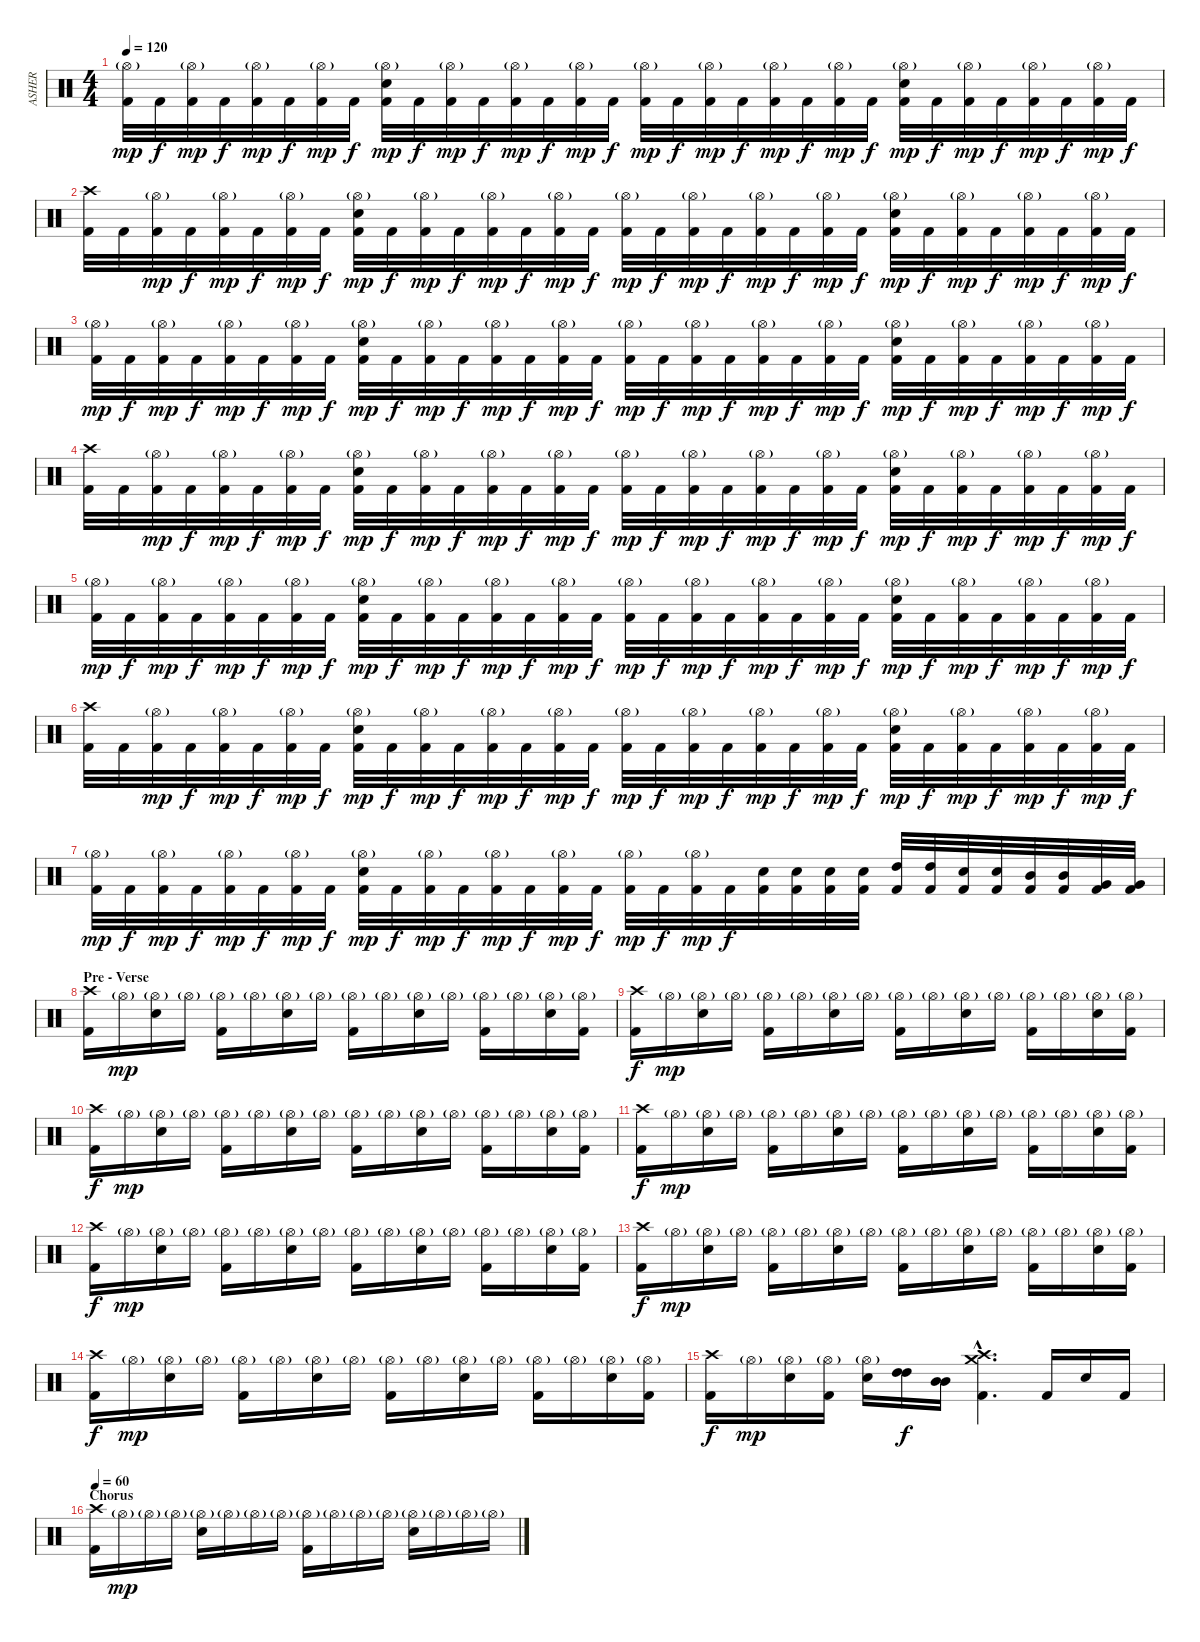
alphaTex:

\track ("ASHER" "ASHER") {instrument percussion}
\staff {score}
\articulation defaults
\ts (4 4)
\tempo 120
\clef neutral
\ks c
("Hi-Hat (open)"{g} "Kick (hit) 2").32{dy mp} "Kick (hit) 2".32{dy f} ("Hi-Hat (open)"{g} "Kick (hit) 2").32{dy mp} "Kick (hit) 2".32{dy f} ("Hi-Hat (open)"{g} "Kick (hit) 2").32{dy mp} "Kick (hit) 2".32{dy f} ("Hi-Hat (open)"{g} "Kick (hit) 2").32{dy mp} "Kick (hit) 2".32{dy f} ("Hi-Hat (open)"{g} "Electric Snare (hit)" "Kick (hit) 2").32{dy mp} "Kick (hit) 2".32{dy f} ("Hi-Hat (open)"{g} "Kick (hit) 2").32{dy mp} "Kick (hit) 2".32{dy f} ("Hi-Hat (open)"{g} "Kick (hit) 2").32{dy mp} "Kick (hit) 2".32{dy f} ("Hi-Hat (open)"{g} "Kick (hit) 2").32{dy mp} "Kick (hit) 2".32{dy f} ("Hi-Hat (open)"{g} "Kick (hit) 2").32{dy mp} "Kick (hit) 2".32{dy f} ("Hi-Hat (open)"{g} "Kick (hit) 2").32{dy mp} "Kick (hit) 2".32{dy f} ("Hi-Hat (open)"{g} "Kick (hit) 2").32{dy mp} "Kick (hit) 2".32{dy f} ("Hi-Hat (open)"{g} "Kick (hit) 2").32{dy mp} "Kick (hit) 2".32{dy f} ("Hi-Hat (open)"{g} "Electric Snare (hit)" "Kick (hit) 2").32{dy mp} "Kick (hit) 2".32{dy f} ("Hi-Hat (open)"{g} "Kick (hit) 2").32{dy mp} "Kick (hit) 2".32{dy f} ("Hi-Hat (open)"{g} "Kick (hit) 2").32{dy mp} "Kick (hit) 2".32{dy f} ("Hi-Hat (open)"{g} "Kick (hit) 2").32{dy mp} "Kick (hit) 2".32{dy f} |
("Crash high (hit)" "Kick (hit) 2").32 "Kick (hit) 2".32 ("Hi-Hat (open)"{g} "Kick (hit) 2").32{dy mp} "Kick (hit) 2".32{dy f} ("Hi-Hat (open)"{g} "Kick (hit) 2").32{dy mp} "Kick (hit) 2".32{dy f} ("Hi-Hat (open)"{g} "Kick (hit) 2").32{dy mp} "Kick (hit) 2".32{dy f} ("Hi-Hat (open)"{g} "Electric Snare (hit)" "Kick (hit) 2").32{dy mp} "Kick (hit) 2".32{dy f} ("Hi-Hat (open)"{g} "Kick (hit) 2").32{dy mp} "Kick (hit) 2".32{dy f} ("Hi-Hat (open)"{g} "Kick (hit) 2").32{dy mp} "Kick (hit) 2".32{dy f} ("Hi-Hat (open)"{g} "Kick (hit) 2").32{dy mp} "Kick (hit) 2".32{dy f} ("Hi-Hat (open)"{g} "Kick (hit) 2").32{dy mp} "Kick (hit) 2".32{dy f} ("Hi-Hat (open)"{g} "Kick (hit) 2").32{dy mp} "Kick (hit) 2".32{dy f} ("Hi-Hat (open)"{g} "Kick (hit) 2").32{dy mp} "Kick (hit) 2".32{dy f} ("Hi-Hat (open)"{g} "Kick (hit) 2").32{dy mp} "Kick (hit) 2".32{dy f} ("Hi-Hat (open)"{g} "Electric Snare (hit)" "Kick (hit) 2").32{dy mp} "Kick (hit) 2".32{dy f} ("Hi-Hat (open)"{g} "Kick (hit) 2").32{dy mp} "Kick (hit) 2".32{dy f} ("Hi-Hat (open)"{g} "Kick (hit) 2").32{dy mp} "Kick (hit) 2".32{dy f} ("Hi-Hat (open)"{g} "Kick (hit) 2").32{dy mp} "Kick (hit) 2".32{dy f} |
("Hi-Hat (open)"{g} "Kick (hit) 2").32{dy mp} "Kick (hit) 2".32{dy f} ("Hi-Hat (open)"{g} "Kick (hit) 2").32{dy mp} "Kick (hit) 2".32{dy f} ("Hi-Hat (open)"{g} "Kick (hit) 2").32{dy mp} "Kick (hit) 2".32{dy f} ("Hi-Hat (open)"{g} "Kick (hit) 2").32{dy mp} "Kick (hit) 2".32{dy f} ("Hi-Hat (open)"{g} "Electric Snare (hit)" "Kick (hit) 2").32{dy mp} "Kick (hit) 2".32{dy f} ("Hi-Hat (open)"{g} "Kick (hit) 2").32{dy mp} "Kick (hit) 2".32{dy f} ("Hi-Hat (open)"{g} "Kick (hit) 2").32{dy mp} "Kick (hit) 2".32{dy f} ("Hi-Hat (open)"{g} "Kick (hit) 2").32{dy mp} "Kick (hit) 2".32{dy f} ("Hi-Hat (open)"{g} "Kick (hit) 2").32{dy mp} "Kick (hit) 2".32{dy f} ("Hi-Hat (open)"{g} "Kick (hit) 2").32{dy mp} "Kick (hit) 2".32{dy f} ("Hi-Hat (open)"{g} "Kick (hit) 2").32{dy mp} "Kick (hit) 2".32{dy f} ("Hi-Hat (open)"{g} "Kick (hit) 2").32{dy mp} "Kick (hit) 2".32{dy f} ("Hi-Hat (open)"{g} "Electric Snare (hit)" "Kick (hit) 2").32{dy mp} "Kick (hit) 2".32{dy f} ("Hi-Hat (open)"{g} "Kick (hit) 2").32{dy mp} "Kick (hit) 2".32{dy f} ("Hi-Hat (open)"{g} "Kick (hit) 2").32{dy mp} "Kick (hit) 2".32{dy f} ("Hi-Hat (open)"{g} "Kick (hit) 2").32{dy mp} "Kick (hit) 2".32{dy f} |
("Crash high (hit)" "Kick (hit) 2").32 "Kick (hit) 2".32 ("Hi-Hat (open)"{g} "Kick (hit) 2").32{dy mp} "Kick (hit) 2".32{dy f} ("Hi-Hat (open)"{g} "Kick (hit) 2").32{dy mp} "Kick (hit) 2".32{dy f} ("Hi-Hat (open)"{g} "Kick (hit) 2").32{dy mp} "Kick (hit) 2".32{dy f} ("Hi-Hat (open)"{g} "Electric Snare (hit)" "Kick (hit) 2").32{dy mp} "Kick (hit) 2".32{dy f} ("Hi-Hat (open)"{g} "Kick (hit) 2").32{dy mp} "Kick (hit) 2".32{dy f} ("Hi-Hat (open)"{g} "Kick (hit) 2").32{dy mp} "Kick (hit) 2".32{dy f} ("Hi-Hat (open)"{g} "Kick (hit) 2").32{dy mp} "Kick (hit) 2".32{dy f} ("Hi-Hat (open)"{g} "Kick (hit) 2").32{dy mp} "Kick (hit) 2".32{dy f} ("Hi-Hat (open)"{g} "Kick (hit) 2").32{dy mp} "Kick (hit) 2".32{dy f} ("Hi-Hat (open)"{g} "Kick (hit) 2").32{dy mp} "Kick (hit) 2".32{dy f} ("Hi-Hat (open)"{g} "Kick (hit) 2").32{dy mp} "Kick (hit) 2".32{dy f} ("Hi-Hat (open)"{g} "Electric Snare (hit)" "Kick (hit) 2").32{dy mp} "Kick (hit) 2".32{dy f} ("Hi-Hat (open)"{g} "Kick (hit) 2").32{dy mp} "Kick (hit) 2".32{dy f} ("Hi-Hat (open)"{g} "Kick (hit) 2").32{dy mp} "Kick (hit) 2".32{dy f} ("Hi-Hat (open)"{g} "Kick (hit) 2").32{dy mp} "Kick (hit) 2".32{dy f} |
("Hi-Hat (open)"{g} "Kick (hit) 2").32{dy mp} "Kick (hit) 2".32{dy f} ("Hi-Hat (open)"{g} "Kick (hit) 2").32{dy mp} "Kick (hit) 2".32{dy f} ("Hi-Hat (open)"{g} "Kick (hit) 2").32{dy mp} "Kick (hit) 2".32{dy f} ("Hi-Hat (open)"{g} "Kick (hit) 2").32{dy mp} "Kick (hit) 2".32{dy f} ("Hi-Hat (open)"{g} "Electric Snare (hit)" "Kick (hit) 2").32{dy mp} "Kick (hit) 2".32{dy f} ("Hi-Hat (open)"{g} "Kick (hit) 2").32{dy mp} "Kick (hit) 2".32{dy f} ("Hi-Hat (open)"{g} "Kick (hit) 2").32{dy mp} "Kick (hit) 2".32{dy f} ("Hi-Hat (open)"{g} "Kick (hit) 2").32{dy mp} "Kick (hit) 2".32{dy f} ("Hi-Hat (open)"{g} "Kick (hit) 2").32{dy mp} "Kick (hit) 2".32{dy f} ("Hi-Hat (open)"{g} "Kick (hit) 2").32{dy mp} "Kick (hit) 2".32{dy f} ("Hi-Hat (open)"{g} "Kick (hit) 2").32{dy mp} "Kick (hit) 2".32{dy f} ("Hi-Hat (open)"{g} "Kick (hit) 2").32{dy mp} "Kick (hit) 2".32{dy f} ("Hi-Hat (open)"{g} "Electric Snare (hit)" "Kick (hit) 2").32{dy mp} "Kick (hit) 2".32{dy f} ("Hi-Hat (open)"{g} "Kick (hit) 2").32{dy mp} "Kick (hit) 2".32{dy f} ("Hi-Hat (open)"{g} "Kick (hit) 2").32{dy mp} "Kick (hit) 2".32{dy f} ("Hi-Hat (open)"{g} "Kick (hit) 2").32{dy mp} "Kick (hit) 2".32{dy f} |
("Crash high (hit)" "Kick (hit) 2").32 "Kick (hit) 2".32 ("Hi-Hat (open)"{g} "Kick (hit) 2").32{dy mp} "Kick (hit) 2".32{dy f} ("Hi-Hat (open)"{g} "Kick (hit) 2").32{dy mp} "Kick (hit) 2".32{dy f} ("Hi-Hat (open)"{g} "Kick (hit) 2").32{dy mp} "Kick (hit) 2".32{dy f} ("Hi-Hat (open)"{g} "Electric Snare (hit)" "Kick (hit) 2").32{dy mp} "Kick (hit) 2".32{dy f} ("Hi-Hat (open)"{g} "Kick (hit) 2").32{dy mp} "Kick (hit) 2".32{dy f} ("Hi-Hat (open)"{g} "Kick (hit) 2").32{dy mp} "Kick (hit) 2".32{dy f} ("Hi-Hat (open)"{g} "Kick (hit) 2").32{dy mp} "Kick (hit) 2".32{dy f} ("Hi-Hat (open)"{g} "Kick (hit) 2").32{dy mp} "Kick (hit) 2".32{dy f} ("Hi-Hat (open)"{g} "Kick (hit) 2").32{dy mp} "Kick (hit) 2".32{dy f} ("Hi-Hat (open)"{g} "Kick (hit) 2").32{dy mp} "Kick (hit) 2".32{dy f} ("Hi-Hat (open)"{g} "Kick (hit) 2").32{dy mp} "Kick (hit) 2".32{dy f} ("Hi-Hat (open)"{g} "Electric Snare (hit)" "Kick (hit) 2").32{dy mp} "Kick (hit) 2".32{dy f} ("Hi-Hat (open)"{g} "Kick (hit) 2").32{dy mp} "Kick (hit) 2".32{dy f} ("Hi-Hat (open)"{g} "Kick (hit) 2").32{dy mp} "Kick (hit) 2".32{dy f} ("Hi-Hat (open)"{g} "Kick (hit) 2").32{dy mp} "Kick (hit) 2".32{dy f} |
("Hi-Hat (open)"{g} "Kick (hit) 2").32{dy mp} "Kick (hit) 2".32{dy f} ("Hi-Hat (open)"{g} "Kick (hit) 2").32{dy mp} "Kick (hit) 2".32{dy f} ("Hi-Hat (open)"{g} "Kick (hit) 2").32{dy mp} "Kick (hit) 2".32{dy f} ("Hi-Hat (open)"{g} "Kick (hit) 2").32{dy mp} "Kick (hit) 2".32{dy f} ("Hi-Hat (open)"{g} "Electric Snare (hit)" "Kick (hit) 2").32{dy mp} "Kick (hit) 2".32{dy f} ("Hi-Hat (open)"{g} "Kick (hit) 2").32{dy mp} "Kick (hit) 2".32{dy f} ("Hi-Hat (open)"{g} "Kick (hit) 2").32{dy mp} "Kick (hit) 2".32{dy f} ("Hi-Hat (open)"{g} "Kick (hit) 2").32{dy mp} "Kick (hit) 2".32{dy f} ("Hi-Hat (open)"{g} "Kick (hit) 2").32{dy mp} "Kick (hit) 2".32{dy f} ("Hi-Hat (open)"{g} "Kick (hit) 2").32{dy mp} "Kick (hit) 2".32{dy f} ("Electric Snare (hit)" "Kick (hit) 2").32 ("Electric Snare (hit)" "Kick (hit) 2").32 ("Electric Snare (hit)" "Kick (hit) 2").32 ("Electric Snare (hit)" "Kick (hit) 2").32 ("High Tom (hit)" "Kick (hit) 2").32 ("High Tom (hit)" "Kick (hit) 2").32 ("Electric Snare (hit)" "Kick (hit) 2").32 ("Electric Snare (hit)" "Kick (hit) 2").32 ("Mid Tom (hit)" "Kick (hit) 2").32 ("Mid Tom (hit)" "Kick (hit) 2").32 ("Very Low Tom (hit)" "Kick (hit) 2").32 ("Very Low Tom (hit)" "Kick (hit) 2").32 |
\section ("" "Pre - Verse")
("Crash high (hit)" "Kick (hit) 2").16 "Hi-Hat (open)"{g}.16{dy mp} ("Hi-Hat (open)"{g} "Electric Snare (hit)").16 "Hi-Hat (open)"{g}.16 ("Hi-Hat (open)"{g} "Kick (hit) 2").16 "Hi-Hat (open)"{g}.16 ("Hi-Hat (open)"{g} "Electric Snare (hit)").16 "Hi-Hat (open)"{g}.16 ("Hi-Hat (open)"{g} "Kick (hit) 2").16 "Hi-Hat (open)"{g}.16 ("Hi-Hat (open)"{g} "Electric Snare (hit)").16 "Hi-Hat (open)"{g}.16 ("Hi-Hat (open)"{g} "Kick (hit) 2").16 "Hi-Hat (open)"{g}.16 ("Hi-Hat (open)"{g} "Electric Snare (hit)").16 ("Hi-Hat (open)"{g} "Kick (hit) 2").16 |
("Crash high (hit)" "Kick (hit) 2").16{dy f} "Hi-Hat (open)"{g}.16{dy mp} ("Hi-Hat (open)"{g} "Electric Snare (hit)").16 "Hi-Hat (open)"{g}.16 ("Hi-Hat (open)"{g} "Kick (hit) 2").16 "Hi-Hat (open)"{g}.16 ("Hi-Hat (open)"{g} "Electric Snare (hit)").16 "Hi-Hat (open)"{g}.16 ("Hi-Hat (open)"{g} "Kick (hit) 2").16 "Hi-Hat (open)"{g}.16 ("Hi-Hat (open)"{g} "Electric Snare (hit)").16 "Hi-Hat (open)"{g}.16 ("Hi-Hat (open)"{g} "Kick (hit) 2").16 "Hi-Hat (open)"{g}.16 ("Hi-Hat (open)"{g} "Electric Snare (hit)").16 ("Hi-Hat (open)"{g} "Kick (hit) 2").16 |
("Crash high (hit)" "Kick (hit) 2").16{dy f} "Hi-Hat (open)"{g}.16{dy mp} ("Hi-Hat (open)"{g} "Electric Snare (hit)").16 "Hi-Hat (open)"{g}.16 ("Hi-Hat (open)"{g} "Kick (hit) 2").16 "Hi-Hat (open)"{g}.16 ("Hi-Hat (open)"{g} "Electric Snare (hit)").16 "Hi-Hat (open)"{g}.16 ("Hi-Hat (open)"{g} "Kick (hit) 2").16 "Hi-Hat (open)"{g}.16 ("Hi-Hat (open)"{g} "Electric Snare (hit)").16 "Hi-Hat (open)"{g}.16 ("Hi-Hat (open)"{g} "Kick (hit) 2").16 "Hi-Hat (open)"{g}.16 ("Hi-Hat (open)"{g} "Electric Snare (hit)").16 ("Hi-Hat (open)"{g} "Kick (hit) 2").16 |
("Crash high (hit)" "Kick (hit) 2").16{dy f} "Hi-Hat (open)"{g}.16{dy mp} ("Hi-Hat (open)"{g} "Electric Snare (hit)").16 "Hi-Hat (open)"{g}.16 ("Hi-Hat (open)"{g} "Kick (hit) 2").16 "Hi-Hat (open)"{g}.16 ("Hi-Hat (open)"{g} "Electric Snare (hit)").16 "Hi-Hat (open)"{g}.16 ("Hi-Hat (open)"{g} "Kick (hit) 2").16 "Hi-Hat (open)"{g}.16 ("Hi-Hat (open)"{g} "Electric Snare (hit)").16 "Hi-Hat (open)"{g}.16 ("Hi-Hat (open)"{g} "Kick (hit) 2").16 "Hi-Hat (open)"{g}.16 ("Hi-Hat (open)"{g} "Electric Snare (hit)").16 ("Hi-Hat (open)"{g} "Kick (hit) 2").16 |
("Crash high (hit)" "Kick (hit) 2").16{dy f} "Hi-Hat (open)"{g}.16{dy mp} ("Hi-Hat (open)"{g} "Electric Snare (hit)").16 "Hi-Hat (open)"{g}.16 ("Hi-Hat (open)"{g} "Kick (hit) 2").16 "Hi-Hat (open)"{g}.16 ("Hi-Hat (open)"{g} "Electric Snare (hit)").16 "Hi-Hat (open)"{g}.16 ("Hi-Hat (open)"{g} "Kick (hit) 2").16 "Hi-Hat (open)"{g}.16 ("Hi-Hat (open)"{g} "Electric Snare (hit)").16 "Hi-Hat (open)"{g}.16 ("Hi-Hat (open)"{g} "Kick (hit) 2").16 "Hi-Hat (open)"{g}.16 ("Hi-Hat (open)"{g} "Electric Snare (hit)").16 ("Hi-Hat (open)"{g} "Kick (hit) 2").16 |
("Crash high (hit)" "Kick (hit) 2").16{dy f} "Hi-Hat (open)"{g}.16{dy mp} ("Hi-Hat (open)"{g} "Electric Snare (hit)").16 "Hi-Hat (open)"{g}.16 ("Hi-Hat (open)"{g} "Kick (hit) 2").16 "Hi-Hat (open)"{g}.16 ("Hi-Hat (open)"{g} "Electric Snare (hit)").16 "Hi-Hat (open)"{g}.16 ("Hi-Hat (open)"{g} "Kick (hit) 2").16 "Hi-Hat (open)"{g}.16 ("Hi-Hat (open)"{g} "Electric Snare (hit)").16 "Hi-Hat (open)"{g}.16 ("Hi-Hat (open)"{g} "Kick (hit) 2").16 "Hi-Hat (open)"{g}.16 ("Hi-Hat (open)"{g} "Electric Snare (hit)").16 ("Hi-Hat (open)"{g} "Kick (hit) 2").16 |
("Crash high (hit)" "Kick (hit) 2").16{dy f} "Hi-Hat (open)"{g}.16{dy mp} ("Hi-Hat (open)"{g} "Electric Snare (hit)").16 "Hi-Hat (open)"{g}.16 ("Hi-Hat (open)"{g} "Kick (hit) 2").16 "Hi-Hat (open)"{g}.16 ("Hi-Hat (open)"{g} "Electric Snare (hit)").16 "Hi-Hat (open)"{g}.16 ("Hi-Hat (open)"{g} "Kick (hit) 2").16 "Hi-Hat (open)"{g}.16 ("Hi-Hat (open)"{g} "Electric Snare (hit)").16 "Hi-Hat (open)"{g}.16 ("Hi-Hat (open)"{g} "Kick (hit) 2").16 "Hi-Hat (open)"{g}.16 ("Hi-Hat (open)"{g} "Electric Snare (hit)").16 ("Hi-Hat (open)"{g} "Kick (hit) 2").16 |
("Crash high (hit)" "Kick (hit) 2").16{dy f} "Hi-Hat (open)"{g}.16{dy mp} ("Hi-Hat (open)"{g} "Electric Snare (hit)").16 ("Hi-Hat (open)"{g} "Kick (hit) 2").16 ("Hi-Hat (open)"{g} "Electric Snare (hit)").16 ("High Tom (hit)" "High Tom (hit)").16{dy f} ("Mid Tom (hit)" "Mid Tom (hit)").16 ("Crash high (hit)"{hac} "Crash medium (hit)"{hac} "Kick (hit) 2"{hac}).4{d} "Kick (hit) 2".16 "Electric Snare (hit)".16 "Kick (hit) 2".16 |
\section ("" "Chorus")
\tempo 60
("Crash high (hit)" "Kick (hit) 2").16 "Hi-Hat (open)"{g}.16{dy mp} "Hi-Hat (open)"{g}.16 "Hi-Hat (open)"{g}.16 ("Hi-Hat (open)"{g} "Electric Snare (hit)").16 "Hi-Hat (open)"{g}.16 "Hi-Hat (open)"{g}.16 "Hi-Hat (open)"{g}.16 ("Hi-Hat (open)"{g} "Kick (hit) 2").16 "Hi-Hat (open)"{g}.16 "Hi-Hat (open)"{g}.16 "Hi-Hat (open)"{g}.16 ("Hi-Hat (open)"{g} "Electric Snare (hit)").16 "Hi-Hat (open)"{g}.16 "Hi-Hat (open)"{g}.16 "Hi-Hat (open)"{g}.16
